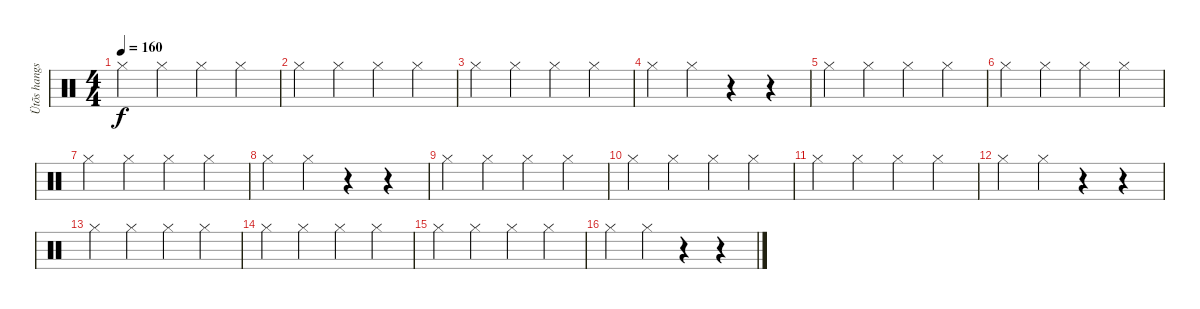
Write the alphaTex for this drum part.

\track ("Ütõs hangszer" "Ütõs hangs") {instrument percussion}
\staff {score}
\articulation defaults
\ts (4 4)
\tempo 160
\clef neutral
\ks c "Hi-Hat (closed)".4{dy f} "Hi-Hat (closed)".4 "Hi-Hat (closed)".4 "Hi-Hat (closed)".4
|
"Hi-Hat (closed)".4 "Hi-Hat (closed)".4 "Hi-Hat (closed)".4 "Hi-Hat (closed)".4 |
"Hi-Hat (closed)".4 "Hi-Hat (closed)".4 "Hi-Hat (closed)".4 "Hi-Hat (closed)".4 |
"Hi-Hat (closed)".4 "Hi-Hat (closed)".4 r.4 r.4 |
"Hi-Hat (closed)".4 "Hi-Hat (closed)".4 "Hi-Hat (closed)".4 "Hi-Hat (closed)".4 |
"Hi-Hat (closed)".4 "Hi-Hat (closed)".4 "Hi-Hat (closed)".4 "Hi-Hat (closed)".4 |
"Hi-Hat (closed)".4 "Hi-Hat (closed)".4 "Hi-Hat (closed)".4 "Hi-Hat (closed)".4 |
"Hi-Hat (closed)".4 "Hi-Hat (closed)".4 r.4 r.4 |
"Hi-Hat (closed)".4 "Hi-Hat (closed)".4 "Hi-Hat (closed)".4 "Hi-Hat (closed)".4 |
"Hi-Hat (closed)".4 "Hi-Hat (closed)".4 "Hi-Hat (closed)".4 "Hi-Hat (closed)".4 |
"Hi-Hat (closed)".4 "Hi-Hat (closed)".4 "Hi-Hat (closed)".4 "Hi-Hat (closed)".4 |
"Hi-Hat (closed)".4 "Hi-Hat (closed)".4 r.4 r.4 |
"Hi-Hat (closed)".4 "Hi-Hat (closed)".4 "Hi-Hat (closed)".4 "Hi-Hat (closed)".4 |
"Hi-Hat (closed)".4 "Hi-Hat (closed)".4 "Hi-Hat (closed)".4 "Hi-Hat (closed)".4 |
"Hi-Hat (closed)".4 "Hi-Hat (closed)".4 "Hi-Hat (closed)".4 "Hi-Hat (closed)".4 |
"Hi-Hat (closed)".4 "Hi-Hat (closed)".4 r.4 r.4
